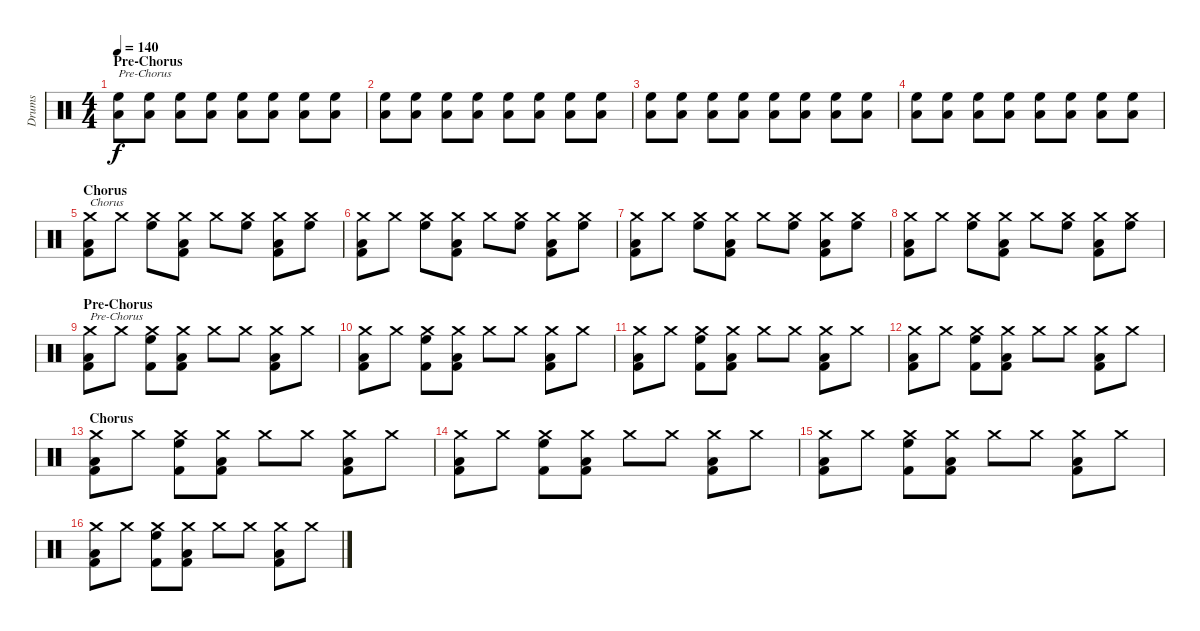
\track ("Drums" "Drums") {instrument percussion}
\staff {score}
\articulation defaults
\ts (4 4)
\section ("" "Pre-Chorus")
\tempo 140
\clef neutral
\ks c
("Low Tom (hit)" "High Floor Tom (hit)").8{txt "Pre-Chorus" dy f} ("Low Tom (hit)" "High Floor Tom (hit)").8 ("Low Tom (hit)" "High Floor Tom (hit)").8 ("Low Tom (hit)" "High Floor Tom (hit)").8 ("Low Tom (hit)" "High Floor Tom (hit)").8 ("Low Tom (hit)" "High Floor Tom (hit)").8 ("Low Tom (hit)" "High Floor Tom (hit)").8 ("Low Tom (hit)" "High Floor Tom (hit)").8 |
("Low Tom (hit)" "High Floor Tom (hit)").8 ("Low Tom (hit)" "High Floor Tom (hit)").8 ("Low Tom (hit)" "High Floor Tom (hit)").8 ("Low Tom (hit)" "High Floor Tom (hit)").8 ("Low Tom (hit)" "High Floor Tom (hit)").8 ("Low Tom (hit)" "High Floor Tom (hit)").8 ("Low Tom (hit)" "High Floor Tom (hit)").8 ("Low Tom (hit)" "High Floor Tom (hit)").8 |
("Low Tom (hit)" "High Floor Tom (hit)").8 ("Low Tom (hit)" "High Floor Tom (hit)").8 ("Low Tom (hit)" "High Floor Tom (hit)").8 ("Low Tom (hit)" "High Floor Tom (hit)").8 ("Low Tom (hit)" "High Floor Tom (hit)").8 ("Low Tom (hit)" "High Floor Tom (hit)").8 ("Low Tom (hit)" "High Floor Tom (hit)").8 ("Low Tom (hit)" "High Floor Tom (hit)").8 |
("Low Tom (hit)" "High Floor Tom (hit)").8 ("Low Tom (hit)" "High Floor Tom (hit)").8 ("Low Tom (hit)" "High Floor Tom (hit)").8 ("Low Tom (hit)" "High Floor Tom (hit)").8 ("Low Tom (hit)" "High Floor Tom (hit)").8 ("Low Tom (hit)" "High Floor Tom (hit)").8 ("Low Tom (hit)" "High Floor Tom (hit)").8 ("Low Tom (hit)" "High Floor Tom (hit)").8 |
\section ("" "Chorus")
("Low Tom (hit)" "Crash medium (hit)" "Kick (hit) 2").8{txt "Chorus"} "Crash medium (hit)".8 ("High Floor Tom (hit)" "Crash medium (hit)").8 ("Low Tom (hit)" "Crash medium (hit)" "Kick (hit) 2").8 "Crash medium (hit)".8 ("High Floor Tom (hit)" "Crash medium (hit)").8 ("Low Tom (hit)" "Crash medium (hit)" "Kick (hit) 2").8 ("High Floor Tom (hit)" "Crash medium (hit)").8 |
("Low Tom (hit)" "Crash medium (hit)" "Kick (hit) 2").8 "Crash medium (hit)".8 ("High Floor Tom (hit)" "Crash medium (hit)").8 ("Low Tom (hit)" "Crash medium (hit)" "Kick (hit) 2").8 "Crash medium (hit)".8 ("High Floor Tom (hit)" "Crash medium (hit)").8 ("Low Tom (hit)" "Crash medium (hit)" "Kick (hit) 2").8 ("High Floor Tom (hit)" "Crash medium (hit)").8 |
("Low Tom (hit)" "Crash medium (hit)" "Kick (hit) 2").8 "Crash medium (hit)".8 ("High Floor Tom (hit)" "Crash medium (hit)").8 ("Low Tom (hit)" "Crash medium (hit)" "Kick (hit) 2").8 "Crash medium (hit)".8 ("High Floor Tom (hit)" "Crash medium (hit)").8 ("Low Tom (hit)" "Crash medium (hit)" "Kick (hit) 2").8 ("High Floor Tom (hit)" "Crash medium (hit)").8 |
("Low Tom (hit)" "Crash medium (hit)" "Kick (hit) 2").8 "Crash medium (hit)".8 ("High Floor Tom (hit)" "Crash medium (hit)").8 ("Low Tom (hit)" "Crash medium (hit)" "Kick (hit) 2").8 "Crash medium (hit)".8 ("High Floor Tom (hit)" "Crash medium (hit)").8 ("Low Tom (hit)" "Crash medium (hit)" "Kick (hit) 2").8 ("High Floor Tom (hit)" "Crash medium (hit)").8 |
\section ("" "Pre-Chorus")
("Low Tom (hit)" "Crash medium (hit)" "Kick (hit) 2").8{txt "Pre-Chorus"} "Crash medium (hit)".8 ("High Floor Tom (hit)" "Crash medium (hit)" "Kick (hit) 2").8 ("Low Tom (hit)" "Crash medium (hit)" "Kick (hit) 2").8 "Crash medium (hit)".8 "Crash medium (hit)".8 ("Low Tom (hit)" "Crash medium (hit)" "Kick (hit) 2").8 "Crash medium (hit)".8 |
("Low Tom (hit)" "Crash medium (hit)" "Kick (hit) 2").8 "Crash medium (hit)".8 ("High Floor Tom (hit)" "Crash medium (hit)" "Kick (hit) 2").8 ("Low Tom (hit)" "Crash medium (hit)" "Kick (hit) 2").8 "Crash medium (hit)".8 "Crash medium (hit)".8 ("Low Tom (hit)" "Crash medium (hit)" "Kick (hit) 2").8 "Crash medium (hit)".8 |
("Low Tom (hit)" "Crash medium (hit)" "Kick (hit) 2").8 "Crash medium (hit)".8 ("High Floor Tom (hit)" "Crash medium (hit)" "Kick (hit) 2").8 ("Low Tom (hit)" "Crash medium (hit)" "Kick (hit) 2").8 "Crash medium (hit)".8 "Crash medium (hit)".8 ("Low Tom (hit)" "Crash medium (hit)" "Kick (hit) 2").8 "Crash medium (hit)".8 |
("Low Tom (hit)" "Crash medium (hit)" "Kick (hit) 2").8 "Crash medium (hit)".8 ("High Floor Tom (hit)" "Crash medium (hit)" "Kick (hit) 2").8 ("Low Tom (hit)" "Crash medium (hit)" "Kick (hit) 2").8 "Crash medium (hit)".8 "Crash medium (hit)".8 ("Low Tom (hit)" "Crash medium (hit)" "Kick (hit) 2").8 "Crash medium (hit)".8 |
\section ("" "Chorus")
("Low Tom (hit)" "Crash medium (hit)" "Kick (hit) 2").8 "Crash medium (hit)".8 ("High Floor Tom (hit)" "Crash medium (hit)" "Kick (hit) 2").8 ("Low Tom (hit)" "Crash medium (hit)" "Kick (hit) 2").8 "Crash medium (hit)".8 "Crash medium (hit)".8 ("Low Tom (hit)" "Crash medium (hit)" "Kick (hit) 2").8 "Crash medium (hit)".8 |
("Low Tom (hit)" "Crash medium (hit)" "Kick (hit) 2").8 "Crash medium (hit)".8 ("High Floor Tom (hit)" "Crash medium (hit)" "Kick (hit) 2").8 ("Low Tom (hit)" "Crash medium (hit)" "Kick (hit) 2").8 "Crash medium (hit)".8 "Crash medium (hit)".8 ("Low Tom (hit)" "Crash medium (hit)" "Kick (hit) 2").8 "Crash medium (hit)".8 |
("Low Tom (hit)" "Crash medium (hit)" "Kick (hit) 2").8 "Crash medium (hit)".8 ("High Floor Tom (hit)" "Crash medium (hit)" "Kick (hit) 2").8 ("Low Tom (hit)" "Crash medium (hit)" "Kick (hit) 2").8 "Crash medium (hit)".8 "Crash medium (hit)".8 ("Low Tom (hit)" "Crash medium (hit)" "Kick (hit) 2").8 "Crash medium (hit)".8 |
("Low Tom (hit)" "Crash medium (hit)" "Kick (hit) 2").8 "Crash medium (hit)".8 ("High Floor Tom (hit)" "Crash medium (hit)" "Kick (hit) 2").8 ("Low Tom (hit)" "Crash medium (hit)" "Kick (hit) 2").8 "Crash medium (hit)".8 "Crash medium (hit)".8 ("Low Tom (hit)" "Crash medium (hit)" "Kick (hit) 2").8 "Crash medium (hit)".8
